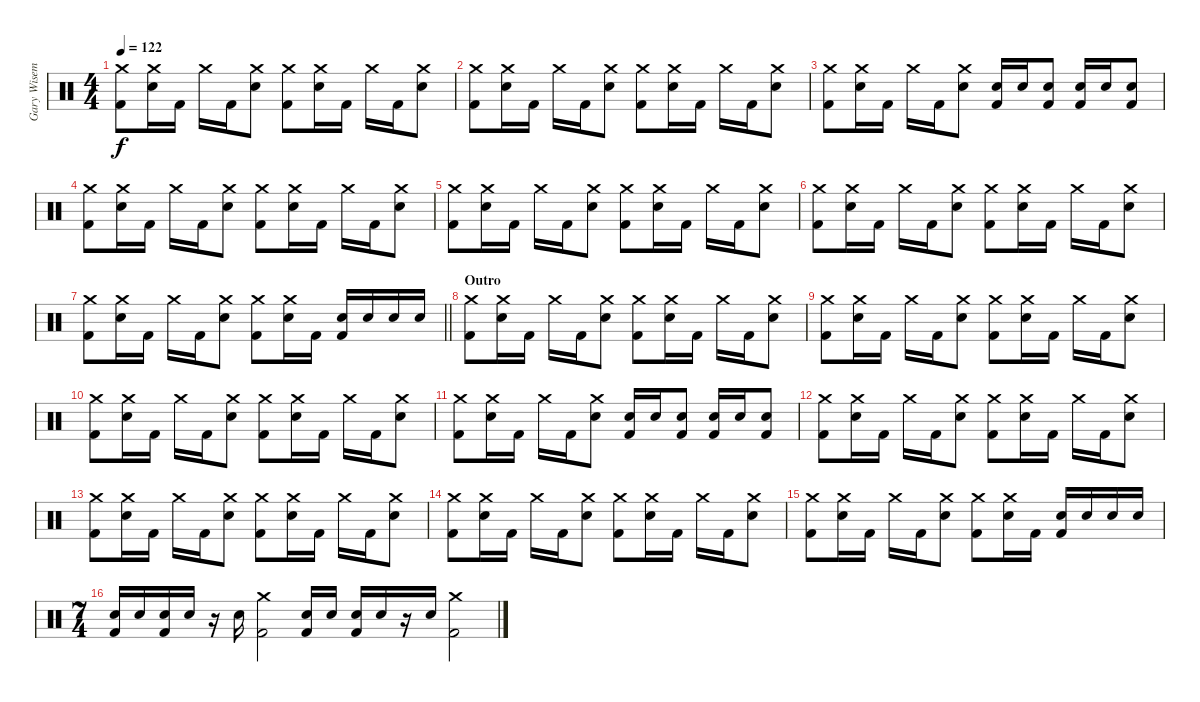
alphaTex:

\track ("Gary Wiseman - Drums" "Gary Wisem") {instrument percussion}
\staff {score}
\articulation defaults
\ts (4 4)
\tempo 122
\clef neutral
\ks c
("Crash medium (hit)" "Kick (hit) 2").8{dy f} ("Crash medium (hit)" "Electric Snare (hit)").16 "Kick (hit) 2".16 "Crash medium (hit)".16 "Kick (hit) 2".16 ("Crash medium (hit)" "Electric Snare (hit)").8 ("Crash medium (hit)" "Kick (hit) 2").8 ("Crash medium (hit)" "Electric Snare (hit)").16 "Kick (hit) 2".16 "Crash medium (hit)".16 "Kick (hit) 2".16 ("Crash medium (hit)" "Electric Snare (hit)").8 |
("Crash medium (hit)" "Kick (hit) 2").8 ("Crash medium (hit)" "Electric Snare (hit)").16 "Kick (hit) 2".16 "Crash medium (hit)".16 "Kick (hit) 2".16 ("Crash medium (hit)" "Electric Snare (hit)").8 ("Crash medium (hit)" "Kick (hit) 2").8 ("Crash medium (hit)" "Electric Snare (hit)").16 "Kick (hit) 2".16 "Crash medium (hit)".16 "Kick (hit) 2".16 ("Crash medium (hit)" "Electric Snare (hit)").8 |
("Crash medium (hit)" "Kick (hit) 2").8 ("Crash medium (hit)" "Electric Snare (hit)").16 "Kick (hit) 2".16 "Crash medium (hit)".16 "Kick (hit) 2".16 ("Crash medium (hit)" "Electric Snare (hit)").8 ("Electric Snare (hit)" "Kick (hit) 2").16 "Electric Snare (hit)".16 ("Electric Snare (hit)" "Kick (hit) 2").8 ("Electric Snare (hit)" "Kick (hit) 2").16 "Electric Snare (hit)".16 ("Electric Snare (hit)" "Kick (hit) 2").8 |
("Crash medium (hit)" "Kick (hit) 2").8 ("Crash medium (hit)" "Electric Snare (hit)").16 "Kick (hit) 2".16 "Crash medium (hit)".16 "Kick (hit) 2".16 ("Crash medium (hit)" "Electric Snare (hit)").8 ("Crash medium (hit)" "Kick (hit) 2").8 ("Crash medium (hit)" "Electric Snare (hit)").16 "Kick (hit) 2".16 "Crash medium (hit)".16 "Kick (hit) 2".16 ("Crash medium (hit)" "Electric Snare (hit)").8 |
("Crash medium (hit)" "Kick (hit) 2").8 ("Crash medium (hit)" "Electric Snare (hit)").16 "Kick (hit) 2".16 "Crash medium (hit)".16 "Kick (hit) 2".16 ("Crash medium (hit)" "Electric Snare (hit)").8 ("Crash medium (hit)" "Kick (hit) 2").8 ("Crash medium (hit)" "Electric Snare (hit)").16 "Kick (hit) 2".16 "Crash medium (hit)".16 "Kick (hit) 2".16 ("Crash medium (hit)" "Electric Snare (hit)").8 |
("Crash medium (hit)" "Kick (hit) 2").8 ("Crash medium (hit)" "Electric Snare (hit)").16 "Kick (hit) 2".16 "Crash medium (hit)".16 "Kick (hit) 2".16 ("Crash medium (hit)" "Electric Snare (hit)").8 ("Crash medium (hit)" "Kick (hit) 2").8 ("Crash medium (hit)" "Electric Snare (hit)").16 "Kick (hit) 2".16 "Crash medium (hit)".16 "Kick (hit) 2".16 ("Crash medium (hit)" "Electric Snare (hit)").8 |
\barLineRight lightlight
("Crash medium (hit)" "Kick (hit) 2").8 ("Crash medium (hit)" "Electric Snare (hit)").16 "Kick (hit) 2".16 "Crash medium (hit)".16 "Kick (hit) 2".16 ("Crash medium (hit)" "Electric Snare (hit)").8 ("Crash medium (hit)" "Kick (hit) 2").8 ("Crash medium (hit)" "Electric Snare (hit)").16 "Kick (hit) 2".16 ("Electric Snare (hit)" "Kick (hit) 2").16 "Electric Snare (hit)".16 "Electric Snare (hit)".16 "Electric Snare (hit)".16 |
\section ("" "Outro")
("Crash medium (hit)" "Kick (hit) 2").8 ("Crash medium (hit)" "Electric Snare (hit)").16 "Kick (hit) 2".16 "Crash medium (hit)".16 "Kick (hit) 2".16 ("Crash medium (hit)" "Electric Snare (hit)").8 ("Crash medium (hit)" "Kick (hit) 2").8 ("Crash medium (hit)" "Electric Snare (hit)").16 "Kick (hit) 2".16 "Crash medium (hit)".16 "Kick (hit) 2".16 ("Crash medium (hit)" "Electric Snare (hit)").8 |
("Crash medium (hit)" "Kick (hit) 2").8 ("Crash medium (hit)" "Electric Snare (hit)").16 "Kick (hit) 2".16 "Crash medium (hit)".16 "Kick (hit) 2".16 ("Crash medium (hit)" "Electric Snare (hit)").8 ("Crash medium (hit)" "Kick (hit) 2").8 ("Crash medium (hit)" "Electric Snare (hit)").16 "Kick (hit) 2".16 "Crash medium (hit)".16 "Kick (hit) 2".16 ("Crash medium (hit)" "Electric Snare (hit)").8 |
("Crash medium (hit)" "Kick (hit) 2").8 ("Crash medium (hit)" "Electric Snare (hit)").16 "Kick (hit) 2".16 "Crash medium (hit)".16 "Kick (hit) 2".16 ("Crash medium (hit)" "Electric Snare (hit)").8 ("Crash medium (hit)" "Kick (hit) 2").8 ("Crash medium (hit)" "Electric Snare (hit)").16 "Kick (hit) 2".16 "Crash medium (hit)".16 "Kick (hit) 2".16 ("Crash medium (hit)" "Electric Snare (hit)").8 |
("Crash medium (hit)" "Kick (hit) 2").8 ("Crash medium (hit)" "Electric Snare (hit)").16 "Kick (hit) 2".16 "Crash medium (hit)".16 "Kick (hit) 2".16 ("Crash medium (hit)" "Electric Snare (hit)").8 ("Electric Snare (hit)" "Kick (hit) 2").16 "Electric Snare (hit)".16 ("Electric Snare (hit)" "Kick (hit) 2").8 ("Electric Snare (hit)" "Kick (hit) 2").16 "Electric Snare (hit)".16 ("Electric Snare (hit)" "Kick (hit) 2").8 |
("Crash medium (hit)" "Kick (hit) 2").8 ("Crash medium (hit)" "Electric Snare (hit)").16 "Kick (hit) 2".16 "Crash medium (hit)".16 "Kick (hit) 2".16 ("Crash medium (hit)" "Electric Snare (hit)").8 ("Crash medium (hit)" "Kick (hit) 2").8 ("Crash medium (hit)" "Electric Snare (hit)").16 "Kick (hit) 2".16 "Crash medium (hit)".16 "Kick (hit) 2".16 ("Crash medium (hit)" "Electric Snare (hit)").8 |
("Crash medium (hit)" "Kick (hit) 2").8 ("Crash medium (hit)" "Electric Snare (hit)").16 "Kick (hit) 2".16 "Crash medium (hit)".16 "Kick (hit) 2".16 ("Crash medium (hit)" "Electric Snare (hit)").8 ("Crash medium (hit)" "Kick (hit) 2").8 ("Crash medium (hit)" "Electric Snare (hit)").16 "Kick (hit) 2".16 "Crash medium (hit)".16 "Kick (hit) 2".16 ("Crash medium (hit)" "Electric Snare (hit)").8 |
("Crash medium (hit)" "Kick (hit) 2").8 ("Crash medium (hit)" "Electric Snare (hit)").16 "Kick (hit) 2".16 "Crash medium (hit)".16 "Kick (hit) 2".16 ("Crash medium (hit)" "Electric Snare (hit)").8 ("Crash medium (hit)" "Kick (hit) 2").8 ("Crash medium (hit)" "Electric Snare (hit)").16 "Kick (hit) 2".16 "Crash medium (hit)".16 "Kick (hit) 2".16 ("Crash medium (hit)" "Electric Snare (hit)").8 |
("Crash medium (hit)" "Kick (hit) 2").8 ("Crash medium (hit)" "Electric Snare (hit)").16 "Kick (hit) 2".16 "Crash medium (hit)".16 "Kick (hit) 2".16 ("Crash medium (hit)" "Electric Snare (hit)").8 ("Crash medium (hit)" "Kick (hit) 2").8 ("Crash medium (hit)" "Electric Snare (hit)").16 "Kick (hit) 2".16 ("Electric Snare (hit)" "Kick (hit) 2").16 "Electric Snare (hit)".16 "Electric Snare (hit)".16 "Electric Snare (hit)".16 |
\ts (7 4)
("Electric Snare (hit)" "Kick (hit) 2").16 "Electric Snare (hit)".16 ("Electric Snare (hit)" "Kick (hit) 2").16 "Electric Snare (hit)".16 r.16 "Electric Snare (hit)".16 ("Crash medium (hit)" "Kick (hit) 2").2 ("Electric Snare (hit)" "Kick (hit) 2").16 "Electric Snare (hit)".16 ("Electric Snare (hit)" "Kick (hit) 2").16 "Electric Snare (hit)".16 r.16 "Electric Snare (hit)".16 ("Crash medium (hit)" "Kick (hit) 2").2
